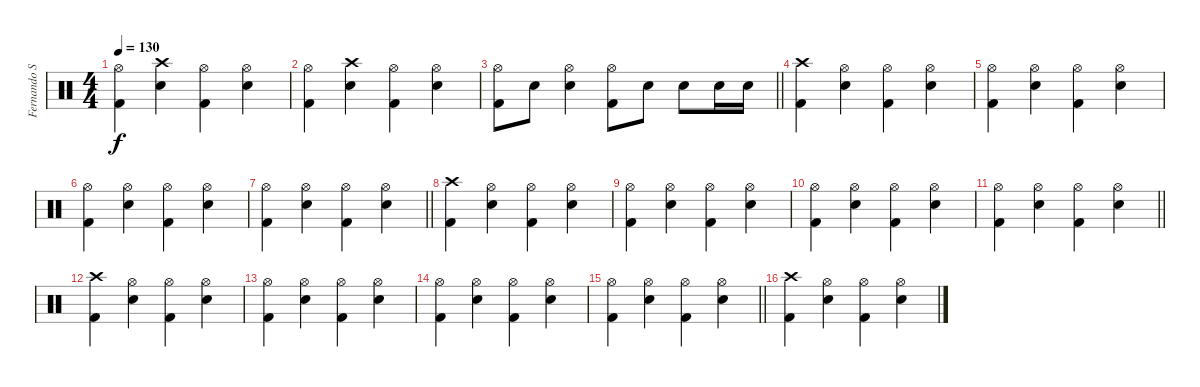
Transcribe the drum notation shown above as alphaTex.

\track ("Fernando Scarcella" "Fernando S") {instrument percussion}
\staff {score}
\articulation defaults
\ts (4 4)
\tempo 130
\clef neutral
\ks c
("Hi-Hat (open)" "Kick (hit) 2").4{dy f} ("Crash high (hit)" "Snare (hit) 2").4 ("Hi-Hat (open)" "Kick (hit) 2").4 ("Hi-Hat (open)" "Snare (hit) 2").4 |
("Hi-Hat (open)" "Kick (hit) 2").4 ("Crash high (hit)" "Snare (hit) 2").4 ("Hi-Hat (open)" "Kick (hit) 2").4 ("Hi-Hat (open)" "Snare (hit) 2").4 |
\barLineRight lightlight
("Hi-Hat (open)" "Kick (hit) 2").8 "Snare (hit) 2".8 ("Hi-Hat (open)" "Snare (hit) 2").4 ("Hi-Hat (open)" "Kick (hit) 2").8 "Snare (hit) 2".8 "Snare (hit) 2".8 "Snare (hit) 2".16 "Snare (hit) 2".16 |
("Crash high (hit)" "Kick (hit) 2").4 ("Hi-Hat (open)" "Snare (hit) 2").4 ("Hi-Hat (open)" "Kick (hit) 2").4 ("Hi-Hat (open)" "Snare (hit) 2").4 |
("Hi-Hat (open)" "Kick (hit) 2").4 ("Hi-Hat (open)" "Snare (hit) 2").4 ("Hi-Hat (open)" "Kick (hit) 2").4 ("Hi-Hat (open)" "Snare (hit) 2").4 |
("Hi-Hat (open)" "Kick (hit) 2").4 ("Hi-Hat (open)" "Snare (hit) 2").4 ("Hi-Hat (open)" "Kick (hit) 2").4 ("Hi-Hat (open)" "Snare (hit) 2").4 |
\barLineRight lightlight
("Hi-Hat (open)" "Kick (hit) 2").4 ("Hi-Hat (open)" "Snare (hit) 2").4 ("Hi-Hat (open)" "Kick (hit) 2").4 ("Hi-Hat (open)" "Snare (hit) 2").4 |
("Crash high (hit)" "Kick (hit) 2").4 ("Hi-Hat (open)" "Snare (hit) 2").4 ("Hi-Hat (open)" "Kick (hit) 2").4 ("Hi-Hat (open)" "Snare (hit) 2").4 |
("Hi-Hat (open)" "Kick (hit) 2").4 ("Hi-Hat (open)" "Snare (hit) 2").4 ("Hi-Hat (open)" "Kick (hit) 2").4 ("Hi-Hat (open)" "Snare (hit) 2").4 |
("Hi-Hat (open)" "Kick (hit) 2").4 ("Hi-Hat (open)" "Snare (hit) 2").4 ("Hi-Hat (open)" "Kick (hit) 2").4 ("Hi-Hat (open)" "Snare (hit) 2").4 |
\barLineRight lightlight
("Hi-Hat (open)" "Kick (hit) 2").4 ("Hi-Hat (open)" "Snare (hit) 2").4 ("Hi-Hat (open)" "Kick (hit) 2").4 ("Hi-Hat (open)" "Snare (hit) 2").4 |
("Crash high (hit)" "Kick (hit) 2").4 ("Hi-Hat (open)" "Snare (hit) 2").4 ("Hi-Hat (open)" "Kick (hit) 2").4 ("Hi-Hat (open)" "Snare (hit) 2").4 |
("Hi-Hat (open)" "Kick (hit) 2").4 ("Hi-Hat (open)" "Snare (hit) 2").4 ("Hi-Hat (open)" "Kick (hit) 2").4 ("Hi-Hat (open)" "Snare (hit) 2").4 |
("Hi-Hat (open)" "Kick (hit) 2").4 ("Hi-Hat (open)" "Snare (hit) 2").4 ("Hi-Hat (open)" "Kick (hit) 2").4 ("Hi-Hat (open)" "Snare (hit) 2").4 |
\barLineRight lightlight
("Hi-Hat (open)" "Kick (hit) 2").4 ("Hi-Hat (open)" "Snare (hit) 2").4 ("Hi-Hat (open)" "Kick (hit) 2").4 ("Hi-Hat (open)" "Snare (hit) 2").4 |
("Crash high (hit)" "Kick (hit) 2").4 ("Hi-Hat (open)" "Snare (hit) 2").4 ("Hi-Hat (open)" "Kick (hit) 2").4 ("Hi-Hat (open)" "Snare (hit) 2").4
